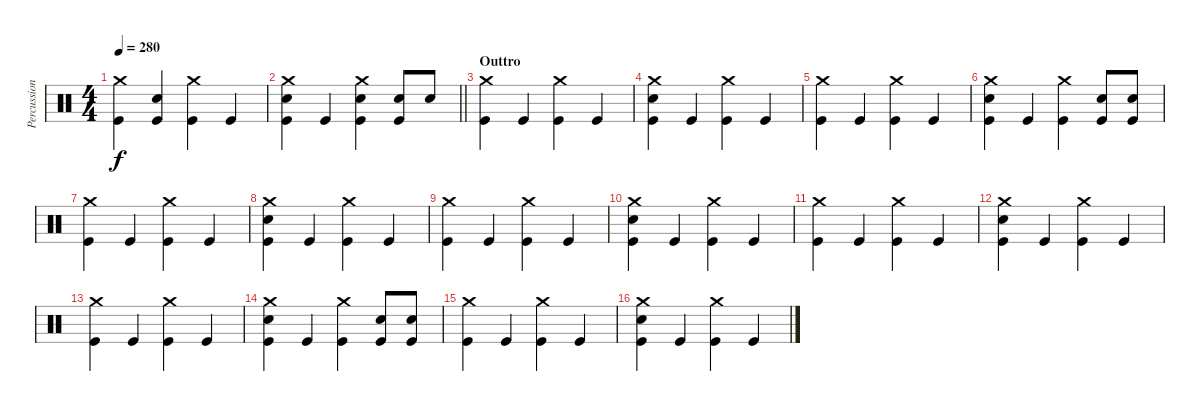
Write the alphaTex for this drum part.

\track ("Percussion" "Percussion") {instrument percussion}
\staff {score}
\articulation defaults
\ts (4 4)
\tempo 280
\clef neutral
\ks c
("Crash medium (hit)" "Kick (hit)").4{dy f} ("Electric Snare (hit)" "Kick (hit)").4 ("Crash medium (hit)" "Kick (hit)").4 "Kick (hit)".4 |
\barLineRight lightlight
("Crash medium (hit)" "Electric Snare (hit)" "Kick (hit)").4 "Kick (hit)".4 ("Crash medium (hit)" "Electric Snare (hit)" "Kick (hit)").4 ("Electric Snare (hit)" "Kick (hit)").8 "Electric Snare (hit)".8 |
\section ("" "Outtro")
("Crash medium (hit)" "Kick (hit)").4 "Kick (hit)".4 ("Crash medium (hit)" "Kick (hit)").4 "Kick (hit)".4 |
("Crash medium (hit)" "Electric Snare (hit)" "Kick (hit)").4 "Kick (hit)".4 ("Crash medium (hit)" "Kick (hit)").4 "Kick (hit)".4 |
("Crash medium (hit)" "Kick (hit)").4 "Kick (hit)".4 ("Crash medium (hit)" "Kick (hit)").4 "Kick (hit)".4 |
("Crash medium (hit)" "Electric Snare (hit)" "Kick (hit)").4 "Kick (hit)".4 ("Crash medium (hit)" "Kick (hit)").4 ("Electric Snare (hit)" "Kick (hit)").8 ("Electric Snare (hit)" "Kick (hit)").8 |
("Crash medium (hit)" "Kick (hit)").4 "Kick (hit)".4 ("Crash medium (hit)" "Kick (hit)").4 "Kick (hit)".4 |
("Crash medium (hit)" "Electric Snare (hit)" "Kick (hit)").4 "Kick (hit)".4 ("Crash medium (hit)" "Kick (hit)").4 "Kick (hit)".4 |
("Crash medium (hit)" "Kick (hit)").4 "Kick (hit)".4 ("Crash medium (hit)" "Kick (hit)").4 "Kick (hit)".4 |
("Crash medium (hit)" "Electric Snare (hit)" "Kick (hit)").4 "Kick (hit)".4 ("Crash medium (hit)" "Kick (hit)").4 "Kick (hit)".4 |
("Crash medium (hit)" "Kick (hit)").4 "Kick (hit)".4 ("Crash medium (hit)" "Kick (hit)").4 "Kick (hit)".4 |
("Crash medium (hit)" "Electric Snare (hit)" "Kick (hit)").4 "Kick (hit)".4 ("Crash medium (hit)" "Kick (hit)").4 "Kick (hit)".4 |
("Crash medium (hit)" "Kick (hit)").4 "Kick (hit)".4 ("Crash medium (hit)" "Kick (hit)").4 "Kick (hit)".4 |
("Crash medium (hit)" "Electric Snare (hit)" "Kick (hit)").4 "Kick (hit)".4 ("Crash medium (hit)" "Kick (hit)").4 ("Electric Snare (hit)" "Kick (hit)").8 ("Electric Snare (hit)" "Kick (hit)").8 |
("Crash medium (hit)" "Kick (hit)").4 "Kick (hit)".4 ("Crash medium (hit)" "Kick (hit)").4 "Kick (hit)".4 |
("Crash medium (hit)" "Electric Snare (hit)" "Kick (hit)").4 "Kick (hit)".4 ("Crash medium (hit)" "Kick (hit)").4 "Kick (hit)".4
